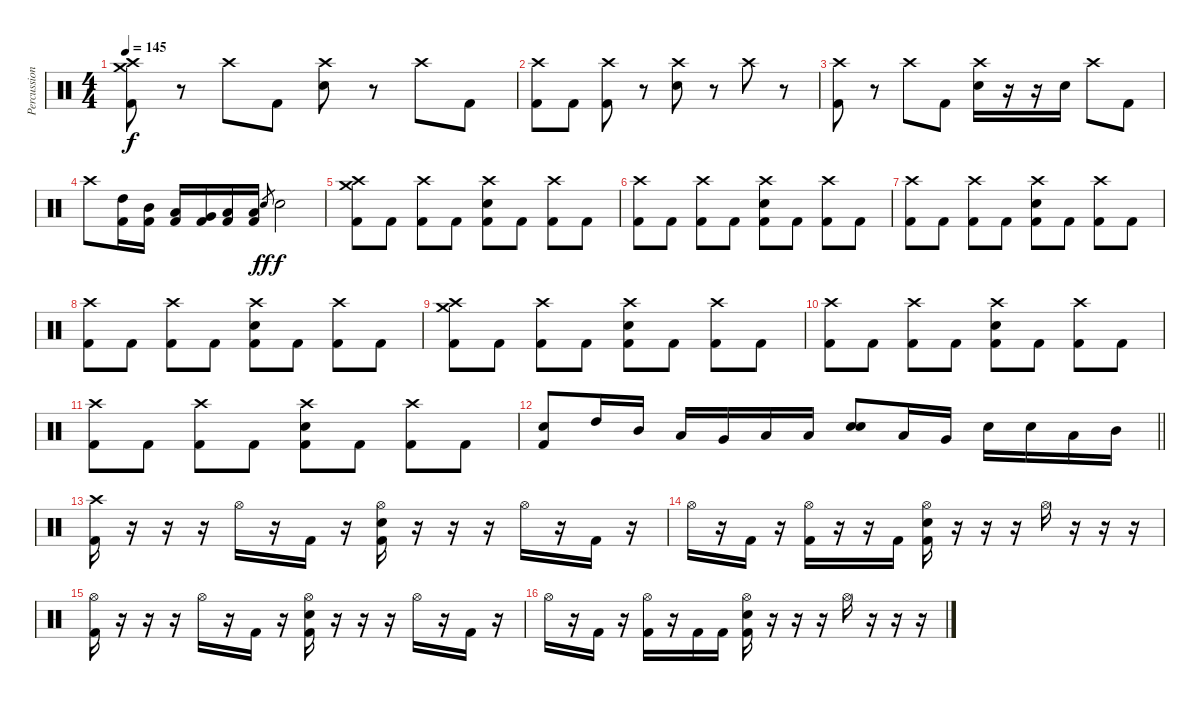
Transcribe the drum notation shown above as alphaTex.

\track ("Percussions" "Percussion") {instrument percussion}
\staff {score}
\articulation defaults
\ts (4 4)
\tempo 145
\clef neutral
\ks c
("Crash medium (hit)" "Crash high (hit)" "Kick (hit) 2").8{dy f} r.8 "Crash high (hit)".8 "Kick (hit) 2".8 ("Crash high (hit)" "Electric Snare (hit)").8 r.8 "Crash high (hit)".8 "Kick (hit) 2".8 |
("Crash high (hit)" "Kick (hit) 2").8 "Kick (hit) 2".8 ("Crash high (hit)" "Kick (hit) 2").8 r.8 ("Crash high (hit)" "Electric Snare (hit)").8 r.8 "Crash high (hit)".8 r.8 |
("Crash high (hit)" "Kick (hit) 2").8 r.8 "Crash high (hit)".8 "Kick (hit) 2".8 ("Crash high (hit)" "Electric Snare (hit)").16 r.16 r.16 "Electric Snare (hit)".16 "Crash high (hit)".8 "Kick (hit) 2".8 |
"Crash high (hit)".8 ("High Tom (hit)" "Kick (hit) 2").16 ("Mid Tom (hit)" "Kick (hit) 2").16 ("Low Tom (hit)" "Kick (hit) 2").16 ("Very Low Tom (hit)" "Kick (hit) 2").16 ("Low Floor Tom (hit)" "Kick (hit) 2").16 ("Low Floor Tom (hit)" "Kick (hit) 2").16 "Snare (hit) 2".8{gr dy ff} "Electric Snare (hit)".2{dy f} |
("Crash medium (hit)" "Crash high (hit)" "Kick (hit) 2").8 "Kick (hit) 2".8 ("Crash high (hit)" "Kick (hit) 2").8 "Kick (hit) 2".8 ("Crash high (hit)" "Electric Snare (hit)" "Kick (hit) 2").8 "Kick (hit) 2".8 ("Crash high (hit)" "Kick (hit) 2").8 "Kick (hit) 2".8 |
("Crash high (hit)" "Kick (hit) 2").8 "Kick (hit) 2".8 ("Crash high (hit)" "Kick (hit) 2").8 "Kick (hit) 2".8 ("Crash high (hit)" "Electric Snare (hit)" "Kick (hit) 2").8 "Kick (hit) 2".8 ("Crash high (hit)" "Kick (hit) 2").8 "Kick (hit) 2".8 |
("Crash high (hit)" "Kick (hit) 2").8 "Kick (hit) 2".8 ("Crash high (hit)" "Kick (hit) 2").8 "Kick (hit) 2".8 ("Crash high (hit)" "Electric Snare (hit)" "Kick (hit) 2").8 "Kick (hit) 2".8 ("Crash high (hit)" "Kick (hit) 2").8 "Kick (hit) 2".8 |
("Crash high (hit)" "Kick (hit) 2").8 "Kick (hit) 2".8 ("Crash high (hit)" "Kick (hit) 2").8 "Kick (hit) 2".8 ("Crash high (hit)" "Electric Snare (hit)" "Kick (hit) 2").8 "Kick (hit) 2".8 ("Crash high (hit)" "Kick (hit) 2").8 "Kick (hit) 2".8 |
("Crash medium (hit)" "Crash high (hit)" "Kick (hit) 2").8 "Kick (hit) 2".8 ("Crash high (hit)" "Kick (hit) 2").8 "Kick (hit) 2".8 ("Crash high (hit)" "Electric Snare (hit)" "Kick (hit) 2").8 "Kick (hit) 2".8 ("Crash high (hit)" "Kick (hit) 2").8 "Kick (hit) 2".8 |
("Crash high (hit)" "Kick (hit) 2").8 "Kick (hit) 2".8 ("Crash high (hit)" "Kick (hit) 2").8 "Kick (hit) 2".8 ("Crash high (hit)" "Electric Snare (hit)" "Kick (hit) 2").8 "Kick (hit) 2".8 ("Crash high (hit)" "Kick (hit) 2").8 "Kick (hit) 2".8 |
("Crash high (hit)" "Kick (hit) 2").8 "Kick (hit) 2".8 ("Crash high (hit)" "Kick (hit) 2").8 "Kick (hit) 2".8 ("Crash high (hit)" "Electric Snare (hit)" "Kick (hit) 2").8 "Kick (hit) 2".8 ("Crash high (hit)" "Kick (hit) 2").8 "Kick (hit) 2".8 |
\barLineRight lightlight
("Electric Snare (hit)" "Kick (hit) 2").8 "High Tom (hit)".16 "Mid Tom (hit)".16 "Low Tom (hit)".16 "Very Low Tom (hit)".16 "Low Floor Tom (hit)".16 "Low Floor Tom (hit)".16 ("Snare (hit) 2" "Electric Snare (hit)").8 "Low Tom (hit)".16 "Very Low Tom (hit)".16 "Electric Snare (hit)".16 "Electric Snare (hit)".16 "Low Tom (hit)".16 "Mid Tom (hit)".16 |
\section ("" "")
("Crash high (hit)" "Kick (hit) 2").16 r.16 r.16 r.16 "Hi-Hat (open)".16 r.16 "Kick (hit) 2".16 r.16 ("Hi-Hat (open)" "Electric Snare (hit)" "Kick (hit) 2").16 r.16 r.16 r.16 "Hi-Hat (open)".16 r.16 "Kick (hit) 2".16 r.16 |
"Hi-Hat (open)".16 r.16 "Kick (hit) 2".16 r.16 ("Hi-Hat (open)" "Kick (hit) 2").16 r.16 r.16 "Kick (hit) 2".16 ("Hi-Hat (open)" "Electric Snare (hit)" "Kick (hit) 2").16 r.16 r.16 r.16 "Hi-Hat (open)".16 r.16 r.16 r.16 |
("Hi-Hat (open)" "Kick (hit) 2").16 r.16 r.16 r.16 "Hi-Hat (open)".16 r.16 "Kick (hit) 2".16 r.16 ("Hi-Hat (open)" "Electric Snare (hit)" "Kick (hit) 2").16 r.16 r.16 r.16 "Hi-Hat (open)".16 r.16 "Kick (hit) 2".16 r.16 |
"Hi-Hat (open)".16 r.16 "Kick (hit) 2".16 r.16 ("Hi-Hat (open)" "Kick (hit) 2").16 r.16 "Kick (hit) 2".16 "Kick (hit) 2".16 ("Hi-Hat (open)" "Electric Snare (hit)" "Kick (hit) 2").16 r.16 r.16 r.16 "Hi-Hat (open)".16 r.16 r.16 r.16
